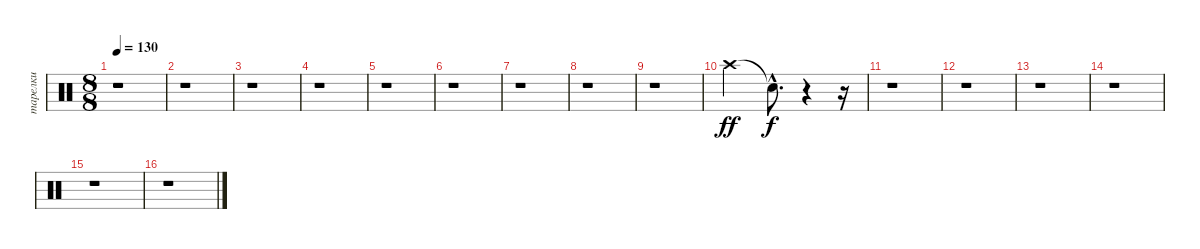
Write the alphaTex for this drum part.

\track ("тарелки" "тарелки") {instrument percussion}
\staff {score}
\articulation defaults
\ts (8 8)
\tempo 130
\clef neutral
\ks c
r.1{dy f} |
r.1 |
r.1 |
r.1 |
r.1 |
r.1 |
r.1 |
r.1 |
r.1 |
"Crash high (hit)".2{dy ff} "Snare (hit)"{hac t}.8{d dy f} r.4 r.16 |
r.1 |
r.1 |
r.1 |
r.1 |
r.1 |
r.1
